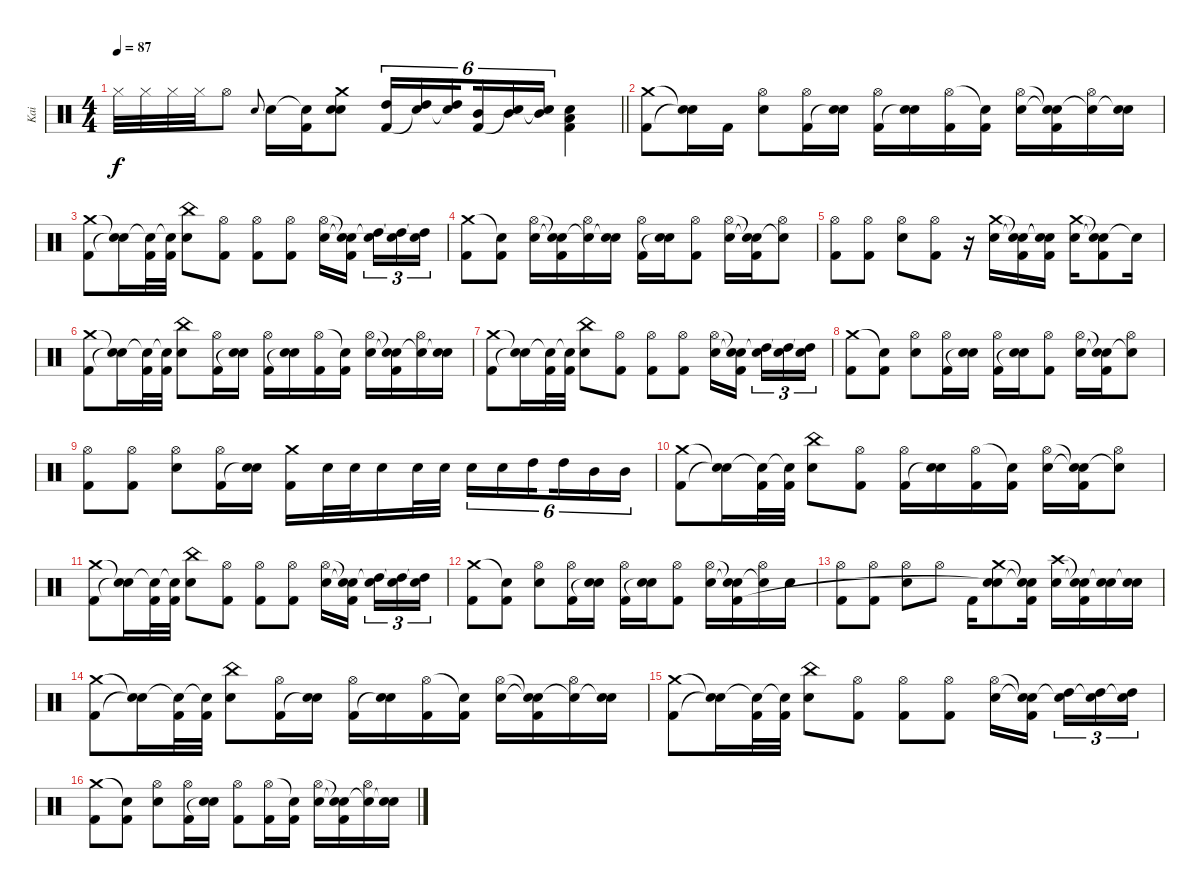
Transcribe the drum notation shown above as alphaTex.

\track ("Kai" "Kai") {instrument percussion}
\staff {score}
\articulation defaults
\ts (4 4)
\tempo 87
\clef neutral
\barLineRight lightlight
\ks c "Hi-Hat (closed)".32{dy f} "Hi-Hat (closed)".32 "Hi-Hat (closed)".32 "Hi-Hat (closed)".32 "Hi-Hat (open)".8 "Snare (hit) 2".8{gr onbeat} "Snare (hit) 2".16
("Snare (hit)"{t} "Kick (hit) 2").16 ("Crash medium (hit)" "Snare (hit) 2" "Snare (hit)"{t}).8 ("High Tom (hit)" "Kick (hit) 2").16{tu (6 4)} ("High Tom (hit)" "Snare (hit)"{t}).16{tu (6 4)} ("High Tom (hit)" "Snare (hit)"{t}).16{tu (6 4) beam splitsecondary} ("Mid Tom (hit)" "Kick (hit) 2").16{tu (6 4)} ("Mid Tom (hit)" "Snare (hit)"{t}).16{tu (6 4)} ("Mid Tom (hit)" "Snare (hit)"{t}).16{tu (6 4)} ("Snare (hit) 2" "Low Tom (hit)" "Kick (hit) 2").4 |
("Crash medium (hit)" "Kick (hit) 2").8 ("Snare (hit)"{t} "Snare (hit)"{t}).16 "Kick (hit) 2".16 ("Hi-Hat (open)" "Snare (hit) 2").8 ("Hi-Hat (open)" "Kick (hit) 2").16 ("Snare (hit) 2" "Snare (hit)"{t}).16 ("Hi-Hat (open)" "Kick (hit) 2").16 ("Snare (hit) 2" "Snare (hit)"{t}).16 ("Hi-Hat (open)" "Kick (hit) 2").16 ("Snare (hit)"{t} "Kick (hit) 2").16 ("Hi-Hat (open)" "Snare (hit) 2").16 ("Snare (hit)"{t} "Snare (hit)"{t} "Kick (hit) 2").16 ("Hi-Hat (open)" "Snare (hit)"{t}).16 ("Snare (hit) 2" "Snare (hit)"{t}).16 |
("Crash medium (hit)" "Kick (hit) 2").8 ("Snare (hit)"{t} "Snare (hit)"{t}).16 ("Snare (hit)"{t} "Kick (hit) 2").32 ("Snare (hit)"{t} "Kick (hit) 2").32 ("China (hit)" "Snare (hit) 2").8 ("Hi-Hat (open)" "Kick (hit) 2").8 ("Hi-Hat (open)" "Kick (hit) 2").8 ("Hi-Hat (open)" "Kick (hit) 2").8 ("Hi-Hat (open)" "Snare (hit) 2").16 ("Snare (hit)"{t} "Snare (hit)"{t} "Kick (hit) 2").16{beam splitsecondary} ("High Tom (hit)" "Snare (hit)"{t}).16{tu (3 2)} ("High Tom (hit)" "Snare (hit)"{t}).16{tu (3 2)} ("High Tom (hit)" "Snare (hit)"{t}).16{tu (3 2)} |
("Crash medium (hit)" "Kick (hit) 2").8 ("Snare (hit)"{t} "Kick (hit) 2").8 ("Hi-Hat (open)" "Snare (hit) 2").16 ("Snare (hit)"{t} "Snare (hit)"{t} "Kick (hit) 2").16 ("Hi-Hat (open)" "Snare (hit)"{t}).16 ("Snare (hit) 2" "Snare (hit)"{t}).16 ("Hi-Hat (open)" "Kick (hit) 2").16 ("Snare (hit) 2" "Snare (hit)"{t}).16 ("Hi-Hat (open)" "Kick (hit) 2").8 ("Hi-Hat (open)" "Snare (hit) 2").16 ("Snare (hit)"{t} "Snare (hit)"{t} "Kick (hit) 2").16 ("Hi-Hat (open)" "Snare (hit)"{t}).8 |
("Hi-Hat (open)" "Kick (hit) 2").8 ("Hi-Hat (open)" "Kick (hit) 2").8 ("Hi-Hat (open)" "Snare (hit) 2").8 ("Hi-Hat (open)" "Kick (hit) 2").8 r.16 ("Crash medium (hit)" "Snare (hit) 2").16 ("Snare (hit)"{t} "Snare (hit)"{t} "Kick (hit) 2").16 ("Snare (hit)"{t} "Snare (hit)"{t} "Kick (hit) 2").16 ("Crash medium (hit)" "Snare (hit) 2").16 ("Snare (hit)"{t} "Snare (hit)"{t} "Kick (hit) 2").8 "Snare (hit)"{t}.16 |
("Crash medium (hit)" "Kick (hit) 2").8 ("Snare (hit)"{t} "Snare (hit)"{t}).16 ("Snare (hit)"{t} "Kick (hit) 2").32 ("Snare (hit)"{t} "Kick (hit) 2").32 ("China (hit)" "Snare (hit) 2").8 ("Hi-Hat (open)" "Kick (hit) 2").16 ("Snare (hit) 2" "Snare (hit)"{t}).16 ("Hi-Hat (open)" "Kick (hit) 2").16 ("Snare (hit) 2" "Snare (hit)"{t}).16 ("Hi-Hat (open)" "Kick (hit) 2").16 ("Snare (hit)"{t} "Kick (hit) 2").16 ("Hi-Hat (open)" "Snare (hit) 2").16 ("Snare (hit)"{t} "Snare (hit)"{t} "Kick (hit) 2").16 ("Hi-Hat (open)" "Snare (hit)"{t}).16 ("Snare (hit) 2" "Snare (hit)"{t}).16 |
("Crash medium (hit)" "Kick (hit) 2").8 ("Snare (hit)"{t} "Snare (hit)"{t}).16 ("Snare (hit)"{t} "Kick (hit) 2").32 ("Snare (hit)"{t} "Kick (hit) 2").32 ("China (hit)" "Snare (hit) 2").8 ("Hi-Hat (open)" "Kick (hit) 2").8 ("Hi-Hat (open)" "Kick (hit) 2").8 ("Hi-Hat (open)" "Kick (hit) 2").8 ("Hi-Hat (open)" "Snare (hit) 2").16 ("Snare (hit)"{t} "Snare (hit)"{t} "Kick (hit) 2").16{beam splitsecondary} ("High Tom (hit)" "Snare (hit)"{t}).16{tu (3 2)} ("High Tom (hit)" "Snare (hit)"{t}).16{tu (3 2)} ("High Tom (hit)" "Snare (hit)"{t}).16{tu (3 2)} |
("Crash medium (hit)" "Kick (hit) 2").8 ("Snare (hit)"{t} "Kick (hit) 2").8 ("Hi-Hat (open)" "Snare (hit) 2").8 ("Hi-Hat (open)" "Kick (hit) 2").16 ("Snare (hit) 2" "Snare (hit)"{t}).16 ("Hi-Hat (open)" "Kick (hit) 2").16 ("Snare (hit) 2" "Snare (hit)"{t}).16 ("Hi-Hat (open)" "Kick (hit) 2").8 ("Hi-Hat (open)" "Snare (hit) 2").16 ("Snare (hit)"{t} "Snare (hit)"{t} "Kick (hit) 2").16 ("Hi-Hat (open)" "Snare (hit)"{t}).8 |
("Hi-Hat (open)" "Kick (hit) 2").8 ("Hi-Hat (open)" "Kick (hit) 2").8 ("Hi-Hat (open)" "Snare (hit) 2").8 ("Hi-Hat (open)" "Kick (hit) 2").16 ("Snare (hit) 2" "Snare (hit)"{t}).16 ("Crash medium (hit)" "Kick (hit) 2").16 "Snare (hit) 2".32 "Snare (hit) 2".32 "Snare (hit) 2".16 "Snare (hit) 2".32 "Snare (hit) 2".32 "Snare (hit) 2".16{tu (6 4)} "Snare (hit) 2".16{tu (6 4)} "High Tom (hit)".16{tu (6 4) beam splitsecondary} "High Tom (hit)".16{tu (6 4)} "Mid Tom (hit)".16{tu (6 4)} "Mid Tom (hit)".16{tu (6 4)} |
("Crash medium (hit)" "Kick (hit) 2").8 ("Snare (hit)"{t} "Snare (hit)"{t}).16 ("Snare (hit)"{t} "Kick (hit) 2").32 ("Snare (hit)"{t} "Kick (hit) 2").32 ("China (hit)" "Snare (hit) 2").8 ("Hi-Hat (open)" "Kick (hit) 2").8 ("Hi-Hat (open)" "Kick (hit) 2").16 ("Snare (hit) 2" "Snare (hit)"{t}).16 ("Hi-Hat (open)" "Kick (hit) 2").16 ("Snare (hit)"{t} "Kick (hit) 2").16 ("Hi-Hat (open)" "Snare (hit) 2").16 ("Snare (hit)"{t} "Snare (hit)"{t} "Kick (hit) 2").16 ("Hi-Hat (open)" "Snare (hit)"{t}).8 |
("Crash medium (hit)" "Kick (hit) 2").8 ("Snare (hit)"{t} "Snare (hit)"{t}).16 ("Snare (hit)"{t} "Kick (hit) 2").32 ("Snare (hit)"{t} "Kick (hit) 2").32 ("China (hit)" "Snare (hit) 2").8 ("Hi-Hat (open)" "Kick (hit) 2").8 ("Hi-Hat (open)" "Kick (hit) 2").8 ("Hi-Hat (open)" "Kick (hit) 2").8 ("Hi-Hat (open)" "Snare (hit) 2").16 ("Snare (hit)"{t} "Snare (hit)"{t} "Kick (hit) 2").16{beam splitsecondary} ("High Tom (hit)" "Snare (hit)"{t}).16{tu (3 2)} ("High Tom (hit)" "Snare (hit)"{t}).16{tu (3 2)} ("High Tom (hit)" "Snare (hit)"{t}).16{tu (3 2)} |
("Crash medium (hit)" "Kick (hit) 2").8 ("Snare (hit)"{t} "Kick (hit) 2").8 ("Hi-Hat (open)" "Snare (hit) 2").8 ("Hi-Hat (open)" "Kick (hit) 2").16 ("Snare (hit) 2" "Snare (hit)"{t}).16 ("Hi-Hat (open)" "Kick (hit) 2").16 ("Snare (hit) 2" "Snare (hit)"{t}).16 ("Hi-Hat (open)" "Kick (hit) 2").8 ("Hi-Hat (open)" "Snare (hit) 2").16 ("Snare (hit)"{t} "Snare (hit)"{t} "Kick (hit) 2").16 ("Hi-Hat (open)" "Snare (hit)"{t}).16 "Snare (hit) 2".16 |
("Hi-Hat (open)" "Kick (hit) 2").8 ("Hi-Hat (open)" "Kick (hit) 2").8 ("Hi-Hat (open)" "Snare (hit) 2").8 "Hi-Hat (open)".8 "Kick (hit) 2".16 ("Crash medium (hit)" "Snare (hit) 2" "Snare (hit)"{t}).8 ("Snare (hit)"{t} "Snare (hit)"{t} "Kick (hit) 2").16 ("Crash high (hit)" "Snare (hit) 2").16 ("Snare (hit)"{t} "Snare (hit)"{t} "Kick (hit) 2").16 ("Snare (hit) 2" "Snare (hit)"{t}).16 ("Snare (hit) 2" "Snare (hit)"{t}).16 |
("Crash medium (hit)" "Kick (hit) 2").8 ("Snare (hit)"{t} "Snare (hit)"{t}).16 ("Snare (hit)"{t} "Kick (hit) 2").32 ("Snare (hit)"{t} "Kick (hit) 2").32 ("China (hit)" "Snare (hit) 2").8 ("Hi-Hat (open)" "Kick (hit) 2").16 ("Snare (hit) 2" "Snare (hit)"{t}).16 ("Hi-Hat (open)" "Kick (hit) 2").16 ("Snare (hit) 2" "Snare (hit)"{t}).16 ("Hi-Hat (open)" "Kick (hit) 2").16 ("Snare (hit)"{t} "Kick (hit) 2").16 ("Hi-Hat (open)" "Snare (hit) 2").16 ("Snare (hit)"{t} "Snare (hit)"{t} "Kick (hit) 2").16 ("Hi-Hat (open)" "Snare (hit)"{t}).16 ("Snare (hit) 2" "Snare (hit)"{t}).16 |
("Crash medium (hit)" "Kick (hit) 2").8 ("Snare (hit)"{t} "Snare (hit)"{t}).16 ("Snare (hit)"{t} "Kick (hit) 2").32 ("Snare (hit)"{t} "Kick (hit) 2").32 ("China (hit)" "Snare (hit) 2").8 ("Hi-Hat (open)" "Kick (hit) 2").8 ("Hi-Hat (open)" "Kick (hit) 2").8 ("Hi-Hat (open)" "Kick (hit) 2").8 ("Hi-Hat (open)" "Snare (hit) 2").16 ("Snare (hit)"{t} "Snare (hit)"{t} "Kick (hit) 2").16{beam splitsecondary} ("High Tom (hit)" "Snare (hit)"{t}).16{tu (3 2)} ("High Tom (hit)" "Snare (hit)"{t}).16{tu (3 2)} ("High Tom (hit)" "Snare (hit)"{t}).16{tu (3 2)} |
("Crash medium (hit)" "Kick (hit) 2").8 ("Snare (hit)"{t} "Kick (hit) 2").8 ("Hi-Hat (open)" "Snare (hit) 2").8 ("Hi-Hat (open)" "Kick (hit) 2").16 ("Snare (hit) 2" "Snare (hit)"{t}).16 ("Hi-Hat (open)" "Kick (hit) 2").8 ("Hi-Hat (open)" "Kick (hit) 2").16 ("Snare (hit)"{t} "Kick (hit) 2").16 ("Hi-Hat (open)" "Snare (hit) 2").16 ("Snare (hit)"{t} "Snare (hit)"{t} "Kick (hit) 2").16 ("Hi-Hat (open)" "Snare (hit)"{t}).16 ("Snare (hit) 2" "Snare (hit)"{t}).16
